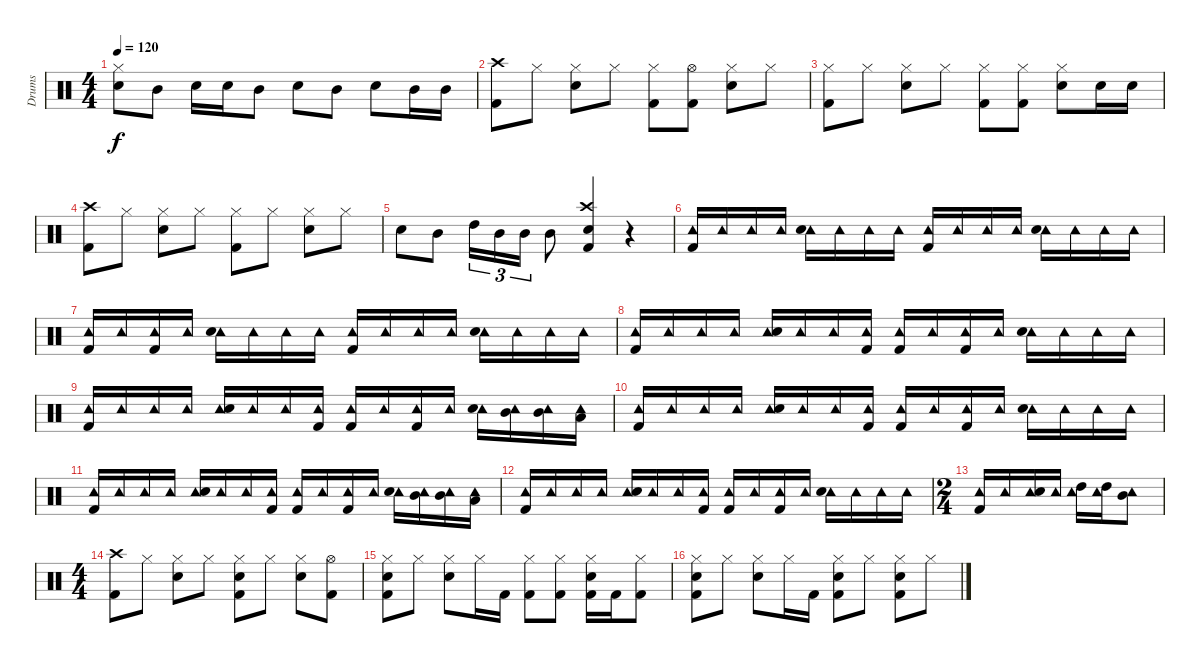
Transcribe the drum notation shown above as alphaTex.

\track ("Drums" "Drums") {instrument percussion}
\staff {score}
\articulation defaults
\ts (4 4)
\tempo 120
\clef neutral
\ks c
("Hi-Hat (closed)" "Snare (hit) 2").8{dy f} "Mid Tom (hit)".8 "Snare (hit) 2".16 "Snare (hit) 2".16 "Mid Tom (hit)".8 "Snare (hit) 2".8 "Mid Tom (hit)".8 "Snare (hit) 2".8 "Mid Tom (hit)".16 "Mid Tom (hit)".16 |
("Crash high (hit)" "Kick (hit) 2").8 "Hi-Hat (closed)".8 ("Hi-Hat (closed)" "Snare (hit) 2").8 "Hi-Hat (closed)".8 ("Hi-Hat (closed)" "Kick (hit) 2").8 ("Hi-Hat (open)" "Kick (hit) 2").8 ("Hi-Hat (closed)" "Snare (hit) 2").8 "Hi-Hat (closed)".8 |
("Hi-Hat (closed)" "Kick (hit) 2").8 "Hi-Hat (closed)".8 ("Hi-Hat (closed)" "Snare (hit) 2").8 "Hi-Hat (closed)".8 ("Hi-Hat (closed)" "Kick (hit) 2").8 ("Hi-Hat (closed)" "Kick (hit) 2").8 ("Hi-Hat (closed)" "Snare (hit) 2").8 "Snare (hit) 2".16 "Snare (hit) 2".16 |
("Crash high (hit)" "Kick (hit) 2").8 "Hi-Hat (closed)".8 ("Hi-Hat (closed)" "Snare (hit) 2").8 "Hi-Hat (closed)".8 ("Hi-Hat (closed)" "Kick (hit) 2").8 "Hi-Hat (closed)".8 ("Hi-Hat (closed)" "Snare (hit) 2").8 "Hi-Hat (closed)".8 |
"Snare (hit) 2".8 "Mid Tom (hit)".8 "High Tom (hit)".16{tu (3 2)} "Mid Tom (hit)".16{tu (3 2)} "Mid Tom (hit)".16{tu (3 2)} "Mid Tom (hit)".8 ("Crash high (hit)" "Snare (hit) 2" "Kick (hit) 2").4 r.4 |
("Tambourine (hit)" "Kick (hit) 2").16 "Tambourine (hit)".16 "Tambourine (hit)".16 "Tambourine (hit)".16 ("Tambourine (hit)" "Snare (hit) 2").16 "Tambourine (hit)".16 "Tambourine (hit)".16 "Tambourine (hit)".16 ("Tambourine (hit)" "Kick (hit) 2").16 "Tambourine (hit)".16 "Tambourine (hit)".16 "Tambourine (hit)".16 ("Tambourine (hit)" "Snare (hit) 2").16 "Tambourine (hit)".16 "Tambourine (hit)".16 "Tambourine (hit)".16 |
("Tambourine (hit)" "Kick (hit) 2").16 "Tambourine (hit)".16 ("Tambourine (hit)" "Kick (hit) 2").16 "Tambourine (hit)".16 ("Tambourine (hit)" "Snare (hit) 2").16 "Tambourine (hit)".16 "Tambourine (hit)".16 "Tambourine (hit)".16 ("Tambourine (hit)" "Kick (hit) 2").16 "Tambourine (hit)".16 "Tambourine (hit)".16 "Tambourine (hit)".16 ("Tambourine (hit)" "Snare (hit) 2").16 "Tambourine (hit)".16 "Tambourine (hit)".16 "Tambourine (hit)".16 |
("Tambourine (hit)" "Kick (hit) 2").16 "Tambourine (hit)".16 "Tambourine (hit)".16 "Tambourine (hit)".16 ("Tambourine (hit)" "Snare (hit) 2").16 "Tambourine (hit)".16 "Tambourine (hit)".16 ("Tambourine (hit)" "Kick (hit) 2").16 ("Tambourine (hit)" "Kick (hit) 2").16 "Tambourine (hit)".16 ("Tambourine (hit)" "Kick (hit) 2").16 "Tambourine (hit)".16 ("Tambourine (hit)" "Snare (hit) 2").16 "Tambourine (hit)".16 "Tambourine (hit)".16 "Tambourine (hit)".16 |
("Tambourine (hit)" "Kick (hit) 2").16 "Tambourine (hit)".16 "Tambourine (hit)".16 "Tambourine (hit)".16 ("Tambourine (hit)" "Snare (hit) 2").16 "Tambourine (hit)".16 "Tambourine (hit)".16 ("Tambourine (hit)" "Kick (hit) 2").16 ("Tambourine (hit)" "Kick (hit) 2").16 "Tambourine (hit)".16 ("Tambourine (hit)" "Kick (hit) 2").16 "Tambourine (hit)".16 ("Tambourine (hit)" "Snare (hit) 2").16 ("Tambourine (hit)" "Mid Tom (hit)").16 ("Tambourine (hit)" "Mid Tom (hit)").16 ("Tambourine (hit)" "Low Tom (hit)").16 |
("Tambourine (hit)" "Kick (hit) 2").16 "Tambourine (hit)".16 "Tambourine (hit)".16 "Tambourine (hit)".16 ("Tambourine (hit)" "Snare (hit) 2").16 "Tambourine (hit)".16 "Tambourine (hit)".16 ("Tambourine (hit)" "Kick (hit) 2").16 ("Tambourine (hit)" "Kick (hit) 2").16 "Tambourine (hit)".16 ("Tambourine (hit)" "Kick (hit) 2").16 "Tambourine (hit)".16 ("Tambourine (hit)" "Snare (hit) 2").16 "Tambourine (hit)".16 "Tambourine (hit)".16 "Tambourine (hit)".16 |
("Tambourine (hit)" "Kick (hit) 2").16 "Tambourine (hit)".16 "Tambourine (hit)".16 "Tambourine (hit)".16 ("Tambourine (hit)" "Snare (hit) 2").16 "Tambourine (hit)".16 "Tambourine (hit)".16 ("Tambourine (hit)" "Kick (hit) 2").16 ("Tambourine (hit)" "Kick (hit) 2").16 "Tambourine (hit)".16 ("Tambourine (hit)" "Kick (hit) 2").16 "Tambourine (hit)".16 ("Tambourine (hit)" "Snare (hit) 2").16 ("Tambourine (hit)" "Mid Tom (hit)").16 ("Tambourine (hit)" "Mid Tom (hit)").16 ("Tambourine (hit)" "Low Tom (hit)").16 |
("Tambourine (hit)" "Kick (hit) 2").16 "Tambourine (hit)".16 "Tambourine (hit)".16 "Tambourine (hit)".16 ("Tambourine (hit)" "Snare (hit) 2").16 "Tambourine (hit)".16 "Tambourine (hit)".16 ("Tambourine (hit)" "Kick (hit) 2").16 ("Tambourine (hit)" "Kick (hit) 2").16 "Tambourine (hit)".16 ("Tambourine (hit)" "Kick (hit) 2").16 "Tambourine (hit)".16 ("Tambourine (hit)" "Snare (hit) 2").16 "Tambourine (hit)".16 "Tambourine (hit)".16 "Tambourine (hit)".16 |
\ts (2 4)
("Tambourine (hit)" "Kick (hit) 2").16 "Tambourine (hit)".16 ("Tambourine (hit)" "Snare (hit) 2").16 "Tambourine (hit)".16 ("Tambourine (hit)" "High Tom (hit)").16 ("Tambourine (hit)" "High Tom (hit)").16 ("Tambourine (hit)" "Mid Tom (hit)").8 |
\ts (4 4)
("Crash high (hit)" "Kick (hit) 2").8 "Hi-Hat (closed)".8 ("Hi-Hat (closed)" "Snare (hit) 2").8 "Hi-Hat (closed)".8 ("Hi-Hat (closed)" "Snare (hit) 2" "Kick (hit) 2").8 "Hi-Hat (closed)".8 ("Hi-Hat (closed)" "Snare (hit) 2").8 ("Hi-Hat (open)" "Kick (hit) 2").8 |
("Hi-Hat (closed)" "Snare (hit) 2" "Kick (hit) 2").8 "Hi-Hat (closed)".8 ("Hi-Hat (closed)" "Snare (hit) 2").8 "Hi-Hat (closed)".16 "Kick (hit) 2".16 ("Hi-Hat (closed)" "Kick (hit) 2").8 ("Hi-Hat (closed)" "Kick (hit) 2").8 ("Hi-Hat (closed)" "Snare (hit) 2" "Kick (hit) 2").16 "Kick (hit) 2".16 ("Hi-Hat (closed)" "Kick (hit) 2").8 |
("Hi-Hat (closed)" "Snare (hit) 2" "Kick (hit) 2").8 "Hi-Hat (closed)".8 ("Hi-Hat (closed)" "Snare (hit) 2").8 "Hi-Hat (closed)".16 "Kick (hit) 2".16 ("Hi-Hat (closed)" "Snare (hit) 2" "Kick (hit) 2").8 "Hi-Hat (closed)".8 ("Hi-Hat (closed)" "Snare (hit) 2" "Kick (hit) 2").8 "Hi-Hat (closed)".8
